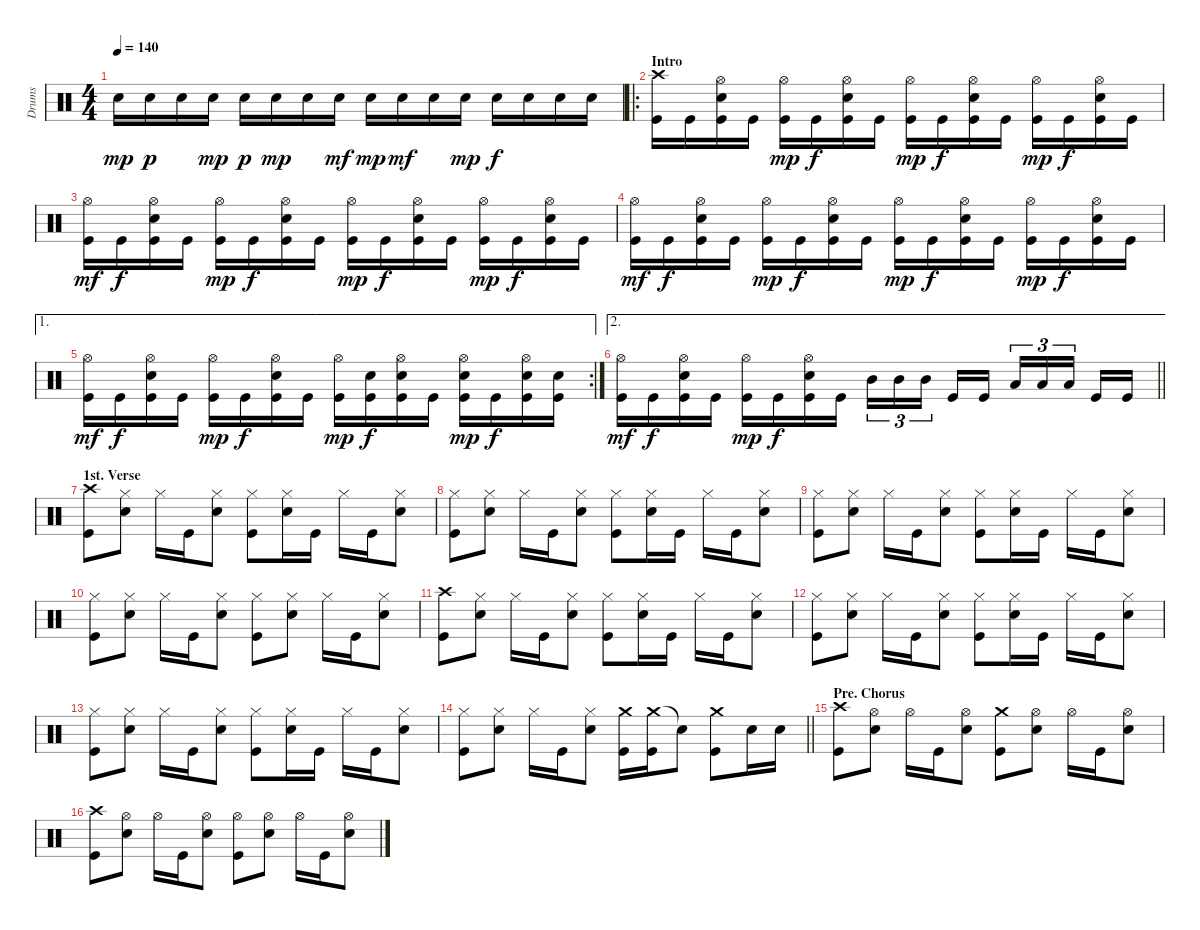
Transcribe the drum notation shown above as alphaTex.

\track ("Drums" "Drums") {instrument percussion}
\staff {score}
\articulation defaults
\ts (4 4)
\tempo 140
\clef neutral
\ks c "Electric Snare (hit)".16{dy mp} "Electric Snare (hit)".16{dy p} "Electric Snare (hit)".16 "Electric Snare (hit)".16{dy mp} "Electric Snare (hit)".16{dy p} "Electric Snare (hit)".16{dy mp} "Electric Snare (hit)".16 "Electric Snare (hit)".16{dy mf} "Electric Snare (hit)".16{dy mp} "Electric Snare (hit)".16{dy mf} "Electric Snare (hit)".16 "Electric Snare (hit)".16{dy mp} "Electric Snare (hit)".16{dy f} "Electric Snare (hit)".16 "Electric Snare (hit)".16 "Electric Snare (hit)".16
|
\ro
\section ("" "Intro")
("Crash high (hit)" "Kick (hit)").16 "Kick (hit)".16 ("Hi-Hat (open)" "Electric Snare (hit)" "Kick (hit)").16 "Kick (hit)".16 ("Hi-Hat (open)" "Kick (hit)").16{dy mp} "Kick (hit)".16{dy f} ("Hi-Hat (open)" "Electric Snare (hit)" "Kick (hit)").16 "Kick (hit)".16 ("Hi-Hat (open)" "Kick (hit)").16{dy mp} "Kick (hit)".16{dy f} ("Hi-Hat (open)" "Electric Snare (hit)" "Kick (hit)").16 "Kick (hit)".16 ("Hi-Hat (open)" "Kick (hit)").16{dy mp} "Kick (hit)".16{dy f} ("Hi-Hat (open)" "Electric Snare (hit)" "Kick (hit)").16 "Kick (hit)".16 |
("Hi-Hat (open)" "Kick (hit)").16{dy mf} "Kick (hit)".16{dy f} ("Hi-Hat (open)" "Electric Snare (hit)" "Kick (hit)").16 "Kick (hit)".16 ("Hi-Hat (open)" "Kick (hit)").16{dy mp} "Kick (hit)".16{dy f} ("Hi-Hat (open)" "Electric Snare (hit)" "Kick (hit)").16 "Kick (hit)".16 ("Hi-Hat (open)" "Kick (hit)").16{dy mp} "Kick (hit)".16{dy f} ("Hi-Hat (open)" "Electric Snare (hit)" "Kick (hit)").16 "Kick (hit)".16 ("Hi-Hat (open)" "Kick (hit)").16{dy mp} "Kick (hit)".16{dy f} ("Hi-Hat (open)" "Electric Snare (hit)" "Kick (hit)").16 "Kick (hit)".16 |
("Hi-Hat (open)" "Kick (hit)").16{dy mf} "Kick (hit)".16{dy f} ("Hi-Hat (open)" "Electric Snare (hit)" "Kick (hit)").16 "Kick (hit)".16 ("Hi-Hat (open)" "Kick (hit)").16{dy mp} "Kick (hit)".16{dy f} ("Hi-Hat (open)" "Electric Snare (hit)" "Kick (hit)").16 "Kick (hit)".16 ("Hi-Hat (open)" "Kick (hit)").16{dy mp} "Kick (hit)".16{dy f} ("Hi-Hat (open)" "Electric Snare (hit)" "Kick (hit)").16 "Kick (hit)".16 ("Hi-Hat (open)" "Kick (hit)").16{dy mp} "Kick (hit)".16{dy f} ("Hi-Hat (open)" "Electric Snare (hit)" "Kick (hit)").16 "Kick (hit)".16 |
\ae 1
\rc 2
("Hi-Hat (open)" "Kick (hit)").16{dy mf} "Kick (hit)".16{dy f} ("Hi-Hat (open)" "Electric Snare (hit)" "Kick (hit)").16 "Kick (hit)".16 ("Hi-Hat (open)" "Kick (hit)").16{dy mp} "Kick (hit)".16{dy f} ("Hi-Hat (open)" "Electric Snare (hit)" "Kick (hit)").16 "Kick (hit)".16 ("Hi-Hat (open)" "Kick (hit)").16{dy mp} ("Electric Snare (hit)" "Kick (hit)").16{dy f} ("Hi-Hat (open)" "Electric Snare (hit)" "Kick (hit)").16 "Kick (hit)".16 ("Hi-Hat (open)" "Electric Snare (hit)" "Kick (hit)").16{dy mp} "Kick (hit)".16{dy f} ("Hi-Hat (open)" "Electric Snare (hit)" "Kick (hit)").16 ("Electric Snare (hit)" "Kick (hit)").16 |
\ae 2
\barLineRight lightlight
("Hi-Hat (open)" "Kick (hit)").16{dy mf} "Kick (hit)".16{dy f} ("Hi-Hat (open)" "Electric Snare (hit)" "Kick (hit)").16 "Kick (hit)".16 ("Hi-Hat (open)" "Kick (hit)").16{dy mp} "Kick (hit)".16{dy f} ("Hi-Hat (open)" "Electric Snare (hit)" "Kick (hit)").16 "Kick (hit)".16 "Mid Tom (hit)".16{tu (3 2)} "Mid Tom (hit)".16{tu (3 2)} "Mid Tom (hit)".16{tu (3 2)} "Kick (hit)".16 "Kick (hit)".16 "Low Tom (hit)".16{tu (3 2)} "Low Tom (hit)".16{tu (3 2)} "Low Tom (hit)".16{tu (3 2)} "Kick (hit)".16 "Kick (hit)".16 |
\section ("" "1st. Verse")
("Crash high (hit)" "Kick (hit)").8 ("Hi-Hat (closed)" "Electric Snare (hit)").8 "Hi-Hat (closed)".16 "Kick (hit)".16 ("Hi-Hat (closed)" "Electric Snare (hit)").8 ("Hi-Hat (closed)" "Kick (hit)").8 ("Hi-Hat (closed)" "Electric Snare (hit)").16 "Kick (hit)".16 "Hi-Hat (closed)".16 "Kick (hit)".16 ("Hi-Hat (closed)" "Electric Snare (hit)").8 |
("Hi-Hat (closed)" "Kick (hit)").8 ("Hi-Hat (closed)" "Electric Snare (hit)").8 "Hi-Hat (closed)".16 "Kick (hit)".16 ("Hi-Hat (closed)" "Electric Snare (hit)").8 ("Hi-Hat (closed)" "Kick (hit)").8 ("Hi-Hat (closed)" "Electric Snare (hit)").16 "Kick (hit)".16 "Hi-Hat (closed)".16 "Kick (hit)".16 ("Hi-Hat (closed)" "Electric Snare (hit)").8 |
("Hi-Hat (closed)" "Kick (hit)").8 ("Hi-Hat (closed)" "Electric Snare (hit)").8 "Hi-Hat (closed)".16 "Kick (hit)".16 ("Hi-Hat (closed)" "Electric Snare (hit)").8 ("Hi-Hat (closed)" "Kick (hit)").8 ("Hi-Hat (closed)" "Electric Snare (hit)").16 "Kick (hit)".16 "Hi-Hat (closed)".16 "Kick (hit)".16 ("Hi-Hat (closed)" "Electric Snare (hit)").8 |
("Hi-Hat (closed)" "Kick (hit)").8 ("Hi-Hat (closed)" "Electric Snare (hit)").8 "Hi-Hat (closed)".16 "Kick (hit)".16 ("Hi-Hat (closed)" "Electric Snare (hit)").8 ("Hi-Hat (closed)" "Kick (hit)").8 ("Hi-Hat (closed)" "Electric Snare (hit)").8 "Hi-Hat (closed)".16 "Kick (hit)".16 ("Hi-Hat (closed)" "Electric Snare (hit)").8 |
("Crash high (hit)" "Kick (hit)").8 ("Hi-Hat (closed)" "Electric Snare (hit)").8 "Hi-Hat (closed)".16 "Kick (hit)".16 ("Hi-Hat (closed)" "Electric Snare (hit)").8 ("Hi-Hat (closed)" "Kick (hit)").8 ("Hi-Hat (closed)" "Electric Snare (hit)").16 "Kick (hit)".16 "Hi-Hat (closed)".16 "Kick (hit)".16 ("Hi-Hat (closed)" "Electric Snare (hit)").8 |
("Hi-Hat (closed)" "Kick (hit)").8 ("Hi-Hat (closed)" "Electric Snare (hit)").8 "Hi-Hat (closed)".16 "Kick (hit)".16 ("Hi-Hat (closed)" "Electric Snare (hit)").8 ("Hi-Hat (closed)" "Kick (hit)").8 ("Hi-Hat (closed)" "Electric Snare (hit)").16 "Kick (hit)".16 "Hi-Hat (closed)".16 "Kick (hit)".16 ("Hi-Hat (closed)" "Electric Snare (hit)").8 |
("Hi-Hat (closed)" "Kick (hit)").8 ("Hi-Hat (closed)" "Electric Snare (hit)").8 "Hi-Hat (closed)".16 "Kick (hit)".16 ("Hi-Hat (closed)" "Electric Snare (hit)").8 ("Hi-Hat (closed)" "Kick (hit)").8 ("Hi-Hat (closed)" "Electric Snare (hit)").16 "Kick (hit)".16 "Hi-Hat (closed)".16 "Kick (hit)".16 ("Hi-Hat (closed)" "Electric Snare (hit)").8 |
\barLineRight lightlight
("Hi-Hat (closed)" "Kick (hit)").8 ("Hi-Hat (closed)" "Electric Snare (hit)").8 "Hi-Hat (closed)".16 "Kick (hit)".16 ("Hi-Hat (closed)" "Electric Snare (hit)").8 ("Crash medium (hit)" "Kick (hit)").16 ("Crash medium (hit)" "Kick (hit)").16 "Snare (hit)"{t}.8 ("Crash medium (hit)" "Kick (hit)").8 "Electric Snare (hit)".16 "Electric Snare (hit)".16 |
\section ("" "Pre. Chorus")
("Crash high (hit)" "Kick (hit)").8 ("Hi-Hat (open)" "Electric Snare (hit)").8 "Hi-Hat (open)".16 "Kick (hit)".16 ("Hi-Hat (open)" "Electric Snare (hit)").8 ("Crash medium (hit)" "Kick (hit)").8 ("Hi-Hat (open)" "Electric Snare (hit)").8 "Hi-Hat (open)".16 "Kick (hit)".16 ("Hi-Hat (open)" "Electric Snare (hit)").8 |
("Crash high (hit)" "Kick (hit)").8 ("Hi-Hat (open)" "Electric Snare (hit)").8 "Hi-Hat (open)".16 "Kick (hit)".16 ("Hi-Hat (open)" "Electric Snare (hit)").8 ("Hi-Hat (open)" "Kick (hit)").8 ("Hi-Hat (open)" "Electric Snare (hit)").8 "Hi-Hat (open)".16 "Kick (hit)".16 ("Hi-Hat (open)" "Electric Snare (hit)").8
